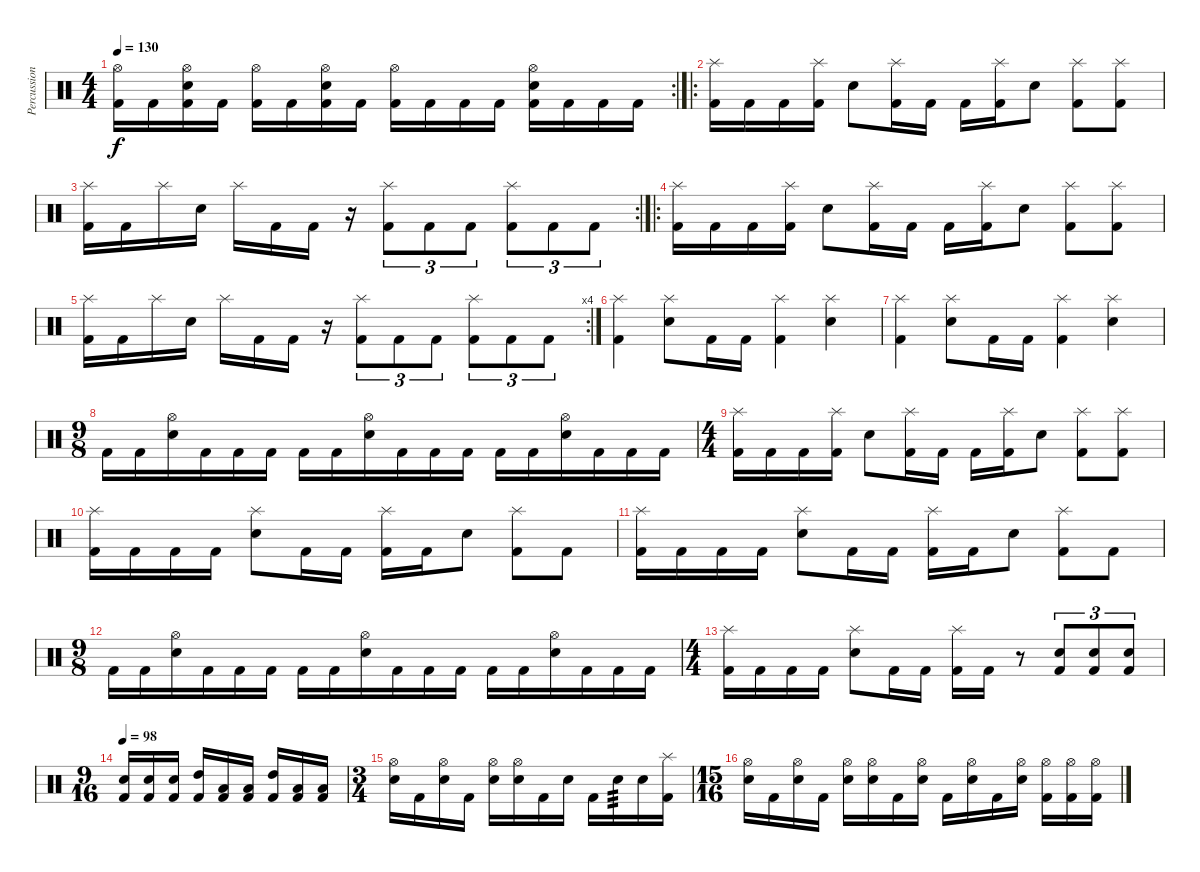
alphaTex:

\track ("Percussion" "Percussion") {instrument percussion}
\staff {score}
\articulation defaults
\rc 2
\ts (4 4)
\tempo 130
\clef neutral
\ks c
("Hi-Hat (open)" "Kick (hit) 2").16{dy f} "Kick (hit) 2".16 ("Hi-Hat (open)" "Electric Snare (hit)" "Kick (hit) 2").16 "Kick (hit) 2".16 ("Hi-Hat (open)" "Kick (hit) 2").16 "Kick (hit) 2".16 ("Electric Snare (hit)" "Hi-Hat (open)" "Kick (hit) 2").16 "Kick (hit) 2".16 ("Hi-Hat (open)" "Kick (hit) 2").16 "Kick (hit) 2".16 "Kick (hit) 2".16 "Kick (hit) 2".16 ("Hi-Hat (open)" "Electric Snare (hit)" "Kick (hit) 2").16 "Kick (hit) 2".16 "Kick (hit) 2".16 "Kick (hit) 2".16 |
\ro
("Splash (hit)" "Kick (hit) 2").16 "Kick (hit) 2".16 "Kick (hit) 2".16 ("Splash (hit)" "Kick (hit) 2").16 "Electric Snare (hit)".8 ("Splash (hit)" "Kick (hit) 2").16 "Kick (hit) 2".16 "Kick (hit) 2".16 ("Splash (hit)" "Kick (hit) 2").16 "Electric Snare (hit)".8 ("Splash (hit)" "Kick (hit) 2").8 ("Splash (hit)" "Kick (hit) 2").8 |
\rc 2
("Splash (hit)" "Kick (hit) 2").16 "Kick (hit) 2".16 "Splash (hit)".16 "Electric Snare (hit)".16 "Splash (hit)".16 "Kick (hit) 2".16 "Kick (hit) 2".16 r.16 ("Splash (hit)" "Kick (hit) 2").8{tu (3 2)} "Kick (hit) 2".8{tu (3 2)} "Kick (hit) 2".8{tu (3 2)} ("Splash (hit)" "Kick (hit) 2").8{tu (3 2)} "Kick (hit) 2".8{tu (3 2)} "Kick (hit) 2".8{tu (3 2)} |
\ro
("Splash (hit)" "Kick (hit) 2").16 "Kick (hit) 2".16 "Kick (hit) 2".16 ("Splash (hit)" "Kick (hit) 2").16 "Electric Snare (hit)".8 ("Splash (hit)" "Kick (hit) 2").16 "Kick (hit) 2".16 "Kick (hit) 2".16 ("Splash (hit)" "Kick (hit) 2").16 "Electric Snare (hit)".8 ("Splash (hit)" "Kick (hit) 2").8 ("Splash (hit)" "Kick (hit) 2").8 |
\rc 4
("Splash (hit)" "Kick (hit) 2").16 "Kick (hit) 2".16 "Splash (hit)".16 "Electric Snare (hit)".16 "Splash (hit)".16 "Kick (hit) 2".16 "Kick (hit) 2".16 r.16 ("Splash (hit)" "Kick (hit) 2").8{tu (3 2)} "Kick (hit) 2".8{tu (3 2)} "Kick (hit) 2".8{tu (3 2)} ("Splash (hit)" "Kick (hit) 2").8{tu (3 2)} "Kick (hit) 2".8{tu (3 2)} "Kick (hit) 2".8{tu (3 2)} |
("Splash (hit)" "Kick (hit) 2").4 ("Splash (hit)" "Electric Snare (hit)").8 "Kick (hit) 2".16 "Kick (hit) 2".16 ("Splash (hit)" "Kick (hit) 2").4 ("Splash (hit)" "Electric Snare (hit)").4 |
("Splash (hit)" "Kick (hit) 2").4 ("Splash (hit)" "Electric Snare (hit)").8 "Kick (hit) 2".16 "Kick (hit) 2".16 ("Splash (hit)" "Kick (hit) 2").4 ("Splash (hit)" "Electric Snare (hit)").4 |
\ts (9 8)
"Kick (hit) 2".16 "Kick (hit) 2".16 ("Hi-Hat (open)" "Electric Snare (hit)").16 "Kick (hit) 2".16 "Kick (hit) 2".16 "Kick (hit) 2".16 "Kick (hit) 2".16 "Kick (hit) 2".16 ("Hi-Hat (open)" "Electric Snare (hit)").16 "Kick (hit) 2".16 "Kick (hit) 2".16 "Kick (hit) 2".16 "Kick (hit) 2".16 "Kick (hit) 2".16 ("Hi-Hat (open)" "Electric Snare (hit)").16 "Kick (hit) 2".16 "Kick (hit) 2".16 "Kick (hit) 2".16 |
\ts (4 4)
("Splash (hit)" "Kick (hit) 2").16 "Kick (hit) 2".16 "Kick (hit) 2".16 ("Splash (hit)" "Kick (hit) 2").16 "Electric Snare (hit)".8 ("Splash (hit)" "Kick (hit) 2").16 "Kick (hit) 2".16 "Kick (hit) 2".16 ("Splash (hit)" "Kick (hit) 2").16 "Electric Snare (hit)".8 ("Splash (hit)" "Kick (hit) 2").8 ("Splash (hit)" "Kick (hit) 2").8 |
("Splash (hit)" "Kick (hit) 2").16 "Kick (hit) 2".16 "Kick (hit) 2".16 "Kick (hit) 2".16 ("Splash (hit)" "Electric Snare (hit)").8 "Kick (hit) 2".16 "Kick (hit) 2".16 ("Splash (hit)" "Kick (hit) 2").16 "Kick (hit) 2".16 "Electric Snare (hit)".8 ("Splash (hit)" "Kick (hit) 2").8 "Kick (hit) 2".8 |
("Splash (hit)" "Kick (hit) 2").16 "Kick (hit) 2".16 "Kick (hit) 2".16 "Kick (hit) 2".16 ("Splash (hit)" "Electric Snare (hit)").8 "Kick (hit) 2".16 "Kick (hit) 2".16 ("Splash (hit)" "Kick (hit) 2").16 "Kick (hit) 2".16 "Electric Snare (hit)".8 ("Splash (hit)" "Kick (hit) 2").8 "Kick (hit) 2".8 |
\ts (9 8)
"Kick (hit) 2".16 "Kick (hit) 2".16 ("Hi-Hat (open)" "Electric Snare (hit)").16 "Kick (hit) 2".16 "Kick (hit) 2".16 "Kick (hit) 2".16 "Kick (hit) 2".16 "Kick (hit) 2".16 ("Hi-Hat (open)" "Electric Snare (hit)").16 "Kick (hit) 2".16 "Kick (hit) 2".16 "Kick (hit) 2".16 "Kick (hit) 2".16 "Kick (hit) 2".16 ("Hi-Hat (open)" "Electric Snare (hit)").16 "Kick (hit) 2".16 "Kick (hit) 2".16 "Kick (hit) 2".16 |
\ts (4 4)
("Splash (hit)" "Kick (hit) 2").16 "Kick (hit) 2".16 "Kick (hit) 2".16 "Kick (hit) 2".16 ("Splash (hit)" "Electric Snare (hit)").8 "Kick (hit) 2".16 "Kick (hit) 2".16 ("Splash (hit)" "Kick (hit) 2").16 "Kick (hit) 2".16 r.8 ("Kick (hit) 2" "Electric Snare (hit)").8{tu (3 2)} ("Kick (hit) 2" "Electric Snare (hit)").8{tu (3 2)} ("Kick (hit) 2" "Electric Snare (hit)").8{tu (3 2)} |
\ts (9 16)
\tempo 98
("Kick (hit) 2" "Electric Snare (hit)").16 ("Kick (hit) 2" "Electric Snare (hit)").16 ("Kick (hit) 2" "Electric Snare (hit)").16 ("Kick (hit) 2" "High Tom (hit)").16 ("Kick (hit) 2" "Low Tom (hit)").16 ("Kick (hit) 2" "Low Floor Tom (hit)").16 ("Kick (hit) 2" "High Tom (hit)").16 ("Kick (hit) 2" "Low Tom (hit)").16 ("Kick (hit) 2" "Low Floor Tom (hit)").16 |
\ts (3 4)
("Hi-Hat (open)" "Electric Snare (hit)").16 "Kick (hit) 2".16 ("Hi-Hat (open)" "Electric Snare (hit)").16 "Kick (hit) 2".16 ("Hi-Hat (open)" "Electric Snare (hit)").16 ("Hi-Hat (open)" "Electric Snare (hit)").16 "Kick (hit) 2".16 "Electric Snare (hit)".16 "Kick (hit) 2".16 "Electric Snare (hit)".16{tp 3} "Electric Snare (hit)".16 ("Splash (hit)" "Kick (hit) 2").16 |
\ts (15 16)
("Hi-Hat (open)" "Electric Snare (hit)").16 "Kick (hit) 2".16 ("Hi-Hat (open)" "Electric Snare (hit)").16 "Kick (hit) 2".16 ("Hi-Hat (open)" "Electric Snare (hit)").16 ("Hi-Hat (open)" "Electric Snare (hit)").16 "Kick (hit) 2".16 ("Hi-Hat (open)" "Electric Snare (hit)").16 "Kick (hit) 2".16 ("Hi-Hat (open)" "Electric Snare (hit)").16 "Kick (hit) 2".16 ("Hi-Hat (open)" "Electric Snare (hit)").16 ("Hi-Hat (open)" "Kick (hit) 2").16 ("Hi-Hat (open)" "Kick (hit) 2").16 ("Hi-Hat (open)" "Kick (hit) 2").16
